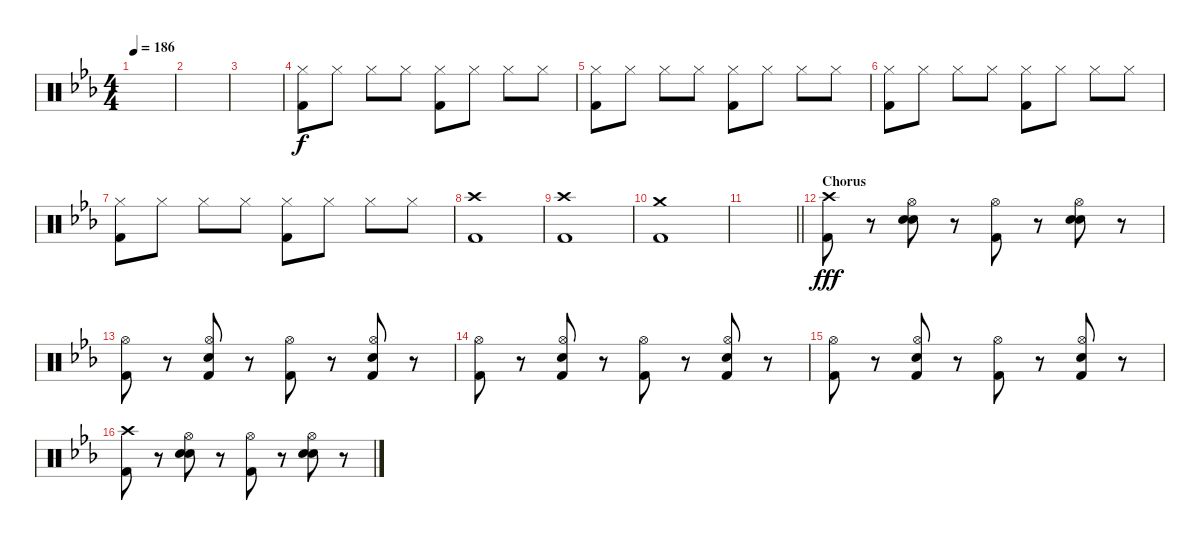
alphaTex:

\track "" {instrument percussion}
\staff {score}
\articulation defaults
\ts (4 4)
\tempo 186
\clef neutral
\ks eb
|
|
|
("Hi-Hat (closed)" "Kick (hit) 2").8 "Hi-Hat (closed)".8 "Hi-Hat (closed)".8 "Hi-Hat (closed)".8 ("Hi-Hat (closed)" "Kick (hit) 2").8 "Hi-Hat (closed)".8 "Hi-Hat (closed)".8 "Hi-Hat (closed)".8 |
("Hi-Hat (closed)" "Kick (hit) 2").8 "Hi-Hat (closed)".8 "Hi-Hat (closed)".8 "Hi-Hat (closed)".8 ("Hi-Hat (closed)" "Kick (hit) 2").8 "Hi-Hat (closed)".8 "Hi-Hat (closed)".8 "Hi-Hat (closed)".8 |
("Hi-Hat (closed)" "Kick (hit) 2").8 "Hi-Hat (closed)".8 "Hi-Hat (closed)".8 "Hi-Hat (closed)".8 ("Hi-Hat (closed)" "Kick (hit) 2").8 "Hi-Hat (closed)".8 "Hi-Hat (closed)".8 "Hi-Hat (closed)".8 |
("Hi-Hat (closed)" "Kick (hit) 2").8 "Hi-Hat (closed)".8 "Hi-Hat (closed)".8 "Hi-Hat (closed)".8 ("Hi-Hat (closed)" "Kick (hit) 2").8 "Hi-Hat (closed)".8 "Hi-Hat (closed)".8 "Hi-Hat (closed)".8 |
("Crash high (hit)" "Kick (hit) 2").1 |
("Crash high (hit)" "Kick (hit) 2").1 |
("Crash medium (hit)" "Kick (hit) 2").1 |
\barLineRight lightlight
|
\section ("" "Chorus")
("Crash high (hit)" "Kick (hit) 2").8{dy fff} r.8 ("Hi-Hat (open)" "Snare (hit) 2" "Snare (hit) 2").8 r.8 ("Hi-Hat (open)" "Kick (hit) 2").8 r.8 ("Hi-Hat (open)" "Snare (hit) 2" "Snare (hit) 2").8 r.8 |
("Hi-Hat (open)" "Kick (hit) 2").8 r.8 ("Hi-Hat (open)" "Snare (hit) 2" "Kick (hit) 2").8 r.8 ("Hi-Hat (open)" "Kick (hit) 2").8 r.8 ("Hi-Hat (open)" "Snare (hit) 2" "Kick (hit) 2").8 r.8 |
("Hi-Hat (open)" "Kick (hit) 2").8 r.8 ("Hi-Hat (open)" "Snare (hit) 2" "Kick (hit) 2").8 r.8 ("Hi-Hat (open)" "Kick (hit) 2").8 r.8 ("Hi-Hat (open)" "Snare (hit) 2" "Kick (hit) 2").8 r.8 |
("Hi-Hat (open)" "Kick (hit) 2").8 r.8 ("Hi-Hat (open)" "Snare (hit) 2" "Kick (hit) 2").8 r.8 ("Hi-Hat (open)" "Kick (hit) 2").8 r.8 ("Hi-Hat (open)" "Snare (hit) 2" "Kick (hit) 2").8 r.8 |
("Crash high (hit)" "Kick (hit) 2").8 r.8 ("Hi-Hat (open)" "Snare (hit) 2" "Snare (hit) 2").8 r.8 ("Hi-Hat (open)" "Kick (hit) 2").8 r.8 ("Hi-Hat (open)" "Snare (hit) 2" "Snare (hit) 2").8 r.8
